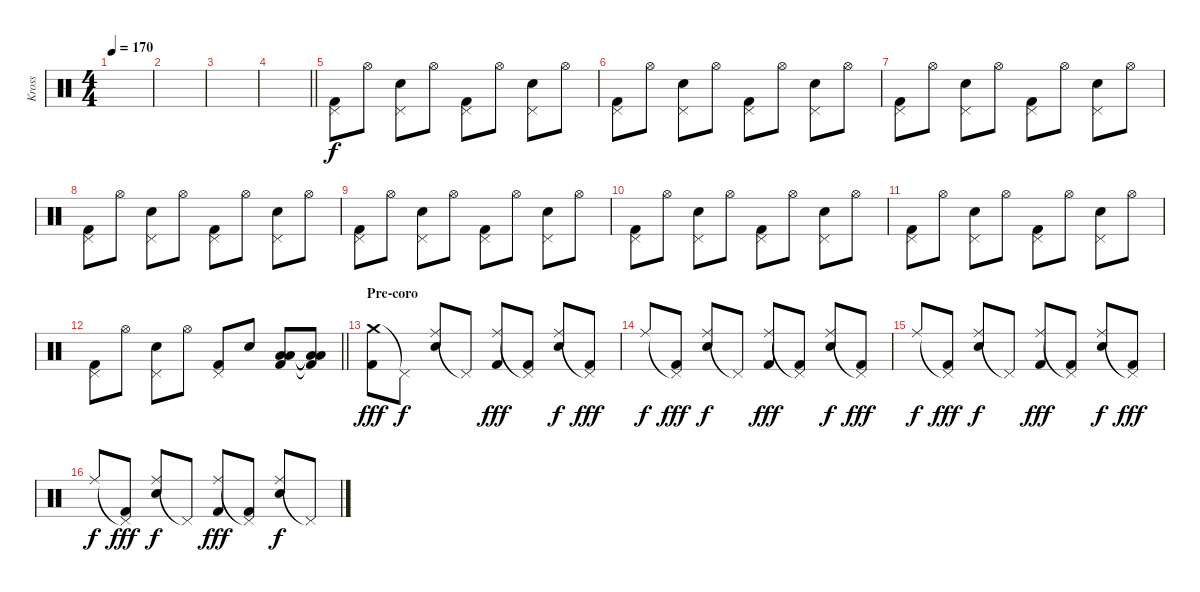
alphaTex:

\track ("Kross" "Kross") {instrument percussion}
\staff {score}
\articulation defaults
\ts (4 4)
\tempo 170
\clef neutral
\ks c
|
|
|
\barLineRight lightlight
|
("Pedal Hi-Hat (hit)" "Kick (hit) 2").8 "Hi-Hat (open)".8 ("Pedal Hi-Hat (hit)" "Electric Snare (hit)").8 "Hi-Hat (open)".8 ("Pedal Hi-Hat (hit)" "Kick (hit) 2").8 "Hi-Hat (open)".8 ("Pedal Hi-Hat (hit)" "Electric Snare (hit)").8 "Hi-Hat (open)".8 |
("Pedal Hi-Hat (hit)" "Kick (hit) 2").8 "Hi-Hat (open)".8 ("Pedal Hi-Hat (hit)" "Electric Snare (hit)").8 "Hi-Hat (open)".8 ("Pedal Hi-Hat (hit)" "Kick (hit) 2").8 "Hi-Hat (open)".8 ("Pedal Hi-Hat (hit)" "Electric Snare (hit)").8 "Hi-Hat (open)".8 |
("Pedal Hi-Hat (hit)" "Kick (hit) 2").8 "Hi-Hat (open)".8 ("Pedal Hi-Hat (hit)" "Electric Snare (hit)").8 "Hi-Hat (open)".8 ("Pedal Hi-Hat (hit)" "Kick (hit) 2").8 "Hi-Hat (open)".8 ("Pedal Hi-Hat (hit)" "Electric Snare (hit)").8 "Hi-Hat (open)".8 |
("Pedal Hi-Hat (hit)" "Kick (hit) 2").8 "Hi-Hat (open)".8 ("Pedal Hi-Hat (hit)" "Electric Snare (hit)").8 "Hi-Hat (open)".8 ("Pedal Hi-Hat (hit)" "Kick (hit) 2").8 "Hi-Hat (open)".8 ("Pedal Hi-Hat (hit)" "Electric Snare (hit)").8 "Hi-Hat (open)".8 |
("Pedal Hi-Hat (hit)" "Kick (hit) 2").8 "Hi-Hat (open)".8 ("Pedal Hi-Hat (hit)" "Electric Snare (hit)").8 "Hi-Hat (open)".8 ("Pedal Hi-Hat (hit)" "Kick (hit) 2").8 "Hi-Hat (open)".8 ("Pedal Hi-Hat (hit)" "Electric Snare (hit)").8 "Hi-Hat (open)".8 |
("Pedal Hi-Hat (hit)" "Kick (hit) 2").8 "Hi-Hat (open)".8 ("Pedal Hi-Hat (hit)" "Electric Snare (hit)").8 "Hi-Hat (open)".8 ("Pedal Hi-Hat (hit)" "Kick (hit) 2").8 "Hi-Hat (open)".8 ("Pedal Hi-Hat (hit)" "Electric Snare (hit)").8 "Hi-Hat (open)".8 |
("Pedal Hi-Hat (hit)" "Kick (hit) 2").8 "Hi-Hat (open)".8 ("Pedal Hi-Hat (hit)" "Electric Snare (hit)").8 "Hi-Hat (open)".8 ("Pedal Hi-Hat (hit)" "Kick (hit) 2").8 "Hi-Hat (open)".8 ("Pedal Hi-Hat (hit)" "Electric Snare (hit)").8 "Hi-Hat (open)".8 |
\barLineRight lightlight
("Pedal Hi-Hat (hit)" "Kick (hit) 2").8 "Hi-Hat (open)".8 ("Pedal Hi-Hat (hit)" "Electric Snare (hit)").8 "Hi-Hat (open)".8 ("Pedal Hi-Hat (hit)" "Kick (hit) 2").8 "Electric Snare (hit)".8 ("Low Tom (hit)" "Low Floor Tom (hit)" "Kick (hit) 2").8 ("Low Tom (hit)"{t} "Low Floor Tom (hit)"{t} "Kick (hit) 2"{t}).8 |
\section ("" "Pre-coro")
("Crash medium (hit)" "Kick (hit) 2").8{dy fff} "Pedal Hi-Hat (hit)"{t}.8{dy f} ("Ride (middle)" "Electric Snare (hit)").8 "Pedal Hi-Hat (hit)"{t}.8 ("Ride (middle)" "Kick (hit) 2").8{dy fff} ("Pedal Hi-Hat (hit)"{t} "Kick (hit) 2").8 ("Ride (middle)" "Electric Snare (hit)").8{dy f} ("Pedal Hi-Hat (hit)"{t} "Kick (hit) 2").8{dy fff} |
"Ride (middle)".8{dy f} ("Pedal Hi-Hat (hit)"{t} "Kick (hit) 2").8{dy fff} ("Ride (middle)" "Electric Snare (hit)").8{dy f} "Pedal Hi-Hat (hit)"{t}.8 ("Ride (middle)" "Kick (hit) 2").8{dy fff} ("Pedal Hi-Hat (hit)"{t} "Kick (hit) 2").8 ("Ride (middle)" "Electric Snare (hit)").8{dy f} ("Pedal Hi-Hat (hit)"{t} "Kick (hit) 2").8{dy fff} |
"Ride (middle)".8{dy f} ("Pedal Hi-Hat (hit)"{t} "Kick (hit) 2").8{dy fff} ("Ride (middle)" "Electric Snare (hit)").8{dy f} "Pedal Hi-Hat (hit)"{t}.8 ("Ride (middle)" "Kick (hit) 2").8{dy fff} ("Pedal Hi-Hat (hit)"{t} "Kick (hit) 2").8 ("Ride (middle)" "Electric Snare (hit)").8{dy f} ("Pedal Hi-Hat (hit)"{t} "Kick (hit) 2").8{dy fff} |
"Ride (middle)".8{dy f} ("Pedal Hi-Hat (hit)"{t} "Kick (hit) 2").8{dy fff} ("Ride (middle)" "Electric Snare (hit)").8{dy f} "Pedal Hi-Hat (hit)"{t}.8 ("Ride (middle)" "Kick (hit) 2").8{dy fff} ("Pedal Hi-Hat (hit)"{t} "Kick (hit) 2").8 ("Ride (middle)" "Electric Snare (hit)").8{dy f} "Pedal Hi-Hat (hit)"{t}.8
